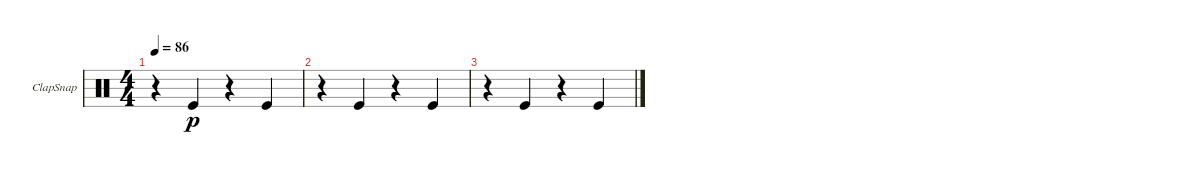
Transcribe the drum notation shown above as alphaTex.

\defaultSystemsLayout 4
\bracketExtendMode groupsimilarinstruments
\firstSystemTrackNameOrientation horizontal
\otherSystemsTrackNameOrientation horizontal
\track ("hand clap / snap" "ClapSnap") {instrument percussion}
\staff {score}
\articulation defaults
\ts (4 4)
\tempo 86
\clef neutral
\ks c
r.4{dy p} "Kick (hit)".4 r.4 "Kick (hit)".4 |
r.4 "Kick (hit)".4 r.4 "Kick (hit)".4 |
r.4 "Kick (hit)".4 r.4 "Kick (hit)".4
